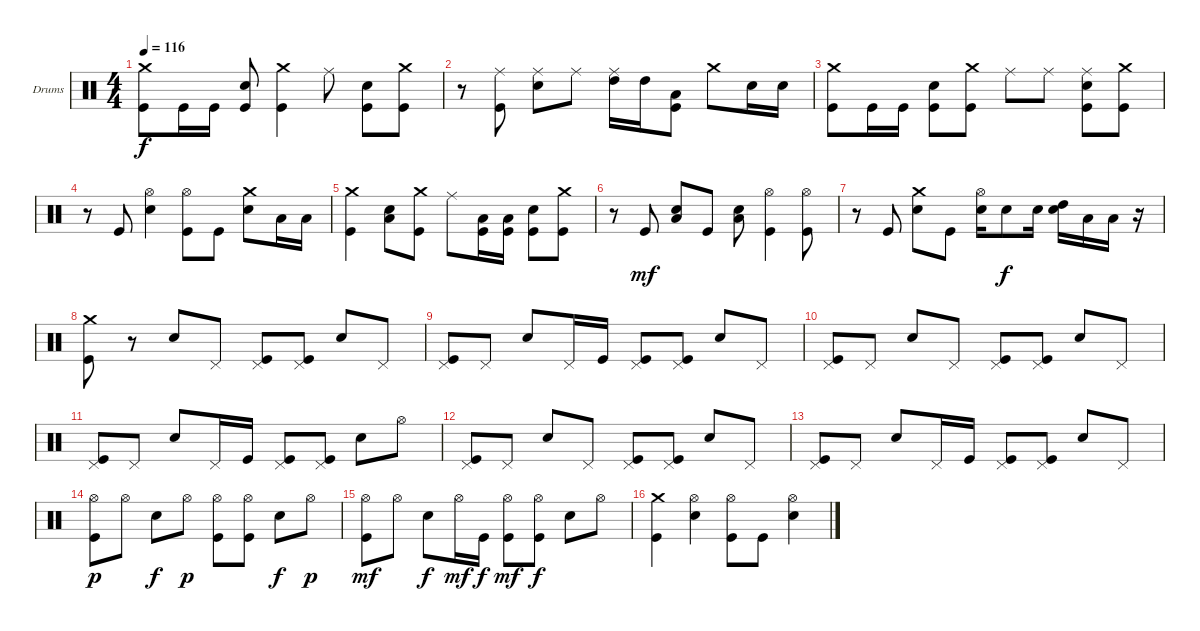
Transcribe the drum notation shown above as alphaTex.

\defaultSystemsLayout 4
\bracketExtendMode nobrackets
\firstSystemTrackNameOrientation horizontal
\otherSystemsTrackNameOrientation horizontal
\track ("Dave Abbruzzese" "Drums") {solo instrument percussion}
\staff {score}
\articulation defaults
\ts (4 4)
\tempo 116
\clef neutral
\ks c
("Crash medium (hit)" "Kick (hit)").8{dy f} "Kick (hit)".16 "Kick (hit)".16 ("Snare (hit) 2" "Kick (hit)").8 ("Crash medium (hit)" "Kick (hit)").4 "Ride (middle)".8 ("Snare (hit) 2" "Kick (hit)").8 ("Crash medium (hit)" "Kick (hit)").8 |
r.8 ("Ride (middle)" "Kick (hit)").8 ("Ride (middle)" "Snare (hit) 2").8 "Ride (middle)".8 ("Ride (middle)" "High Tom (hit)").16 "High Tom (hit)".16 ("Low Tom (hit)" "Kick (hit)").8 "Crash medium (hit)".8 "Snare (hit) 2".16 "Snare (hit) 2".16 |
("Crash medium (hit)" "Kick (hit)").8 "Kick (hit)".16 "Kick (hit)".16 ("Snare (hit) 2" "Kick (hit)").8 ("Crash medium (hit)" "Kick (hit)").8 "Ride (middle)".8 "Ride (middle)".8 ("Ride (middle)" "Snare (hit) 2" "Kick (hit)").8 ("Crash medium (hit)" "Kick (hit)").8 |
r.8 "Kick (hit)".8 ("Hi-Hat (open)" "Snare (hit) 2").4 ("Hi-Hat (open)" "Kick (hit)").8 "Kick (hit)".8 ("Crash medium (hit)" "Snare (hit) 2").8 "Low Tom (hit)".16 "Low Tom (hit)".16 |
("Crash medium (hit)" "Kick (hit)").4 ("Low Tom (hit)" "Snare (hit) 2").8 ("Crash medium (hit)" "Kick (hit)").8 "Ride (middle)".8 ("Low Tom (hit)" "Kick (hit)").16 ("Low Tom (hit)" "Kick (hit)").16 ("Snare (hit) 2" "Kick (hit)").8 ("Crash medium (hit)" "Kick (hit)").8 |
r.8 "Kick (hit)".8{dy mf} ("Low Tom (hit)" "Snare (hit) 2").8 "Kick (hit)".8 ("Low Tom (hit)" "Snare (hit) 2").8 ("Hi-Hat (open)" "Kick (hit)").4 ("Hi-Hat (open)" "Kick (hit)").8 |
r.8 "Kick (hit)".8 ("Crash medium (hit)" "Snare (hit) 2").8 "Kick (hit)".8 ("Hi-Hat (open)" "Snare (hit) 2").16 "Snare (hit) 2".8{dy f} "Snare (hit) 2".16 ("Snare (hit) 2" "High Tom (hit)").16 "Low Tom (hit)".16 "Low Tom (hit)".16 r.16 |
("Crash medium (hit)" "Kick (hit)").8 r.8 "Snare (hit) 2".8 "Pedal Hi-Hat (hit)".8 ("Pedal Hi-Hat (hit)" "Kick (hit)").8 ("Pedal Hi-Hat (hit)" "Kick (hit)").8 "Snare (hit) 2".8 "Pedal Hi-Hat (hit)".8 |
("Pedal Hi-Hat (hit)" "Kick (hit)").8 "Pedal Hi-Hat (hit)".8 "Snare (hit) 2".8 "Pedal Hi-Hat (hit)".16 "Kick (hit)".16 ("Pedal Hi-Hat (hit)" "Kick (hit)").8 ("Pedal Hi-Hat (hit)" "Kick (hit)").8 "Snare (hit) 2".8 "Pedal Hi-Hat (hit)".8 |
("Pedal Hi-Hat (hit)" "Kick (hit)").8 "Pedal Hi-Hat (hit)".8 "Snare (hit) 2".8 "Pedal Hi-Hat (hit)".8 ("Pedal Hi-Hat (hit)" "Kick (hit)").8 ("Pedal Hi-Hat (hit)" "Kick (hit)").8 "Snare (hit) 2".8 "Pedal Hi-Hat (hit)".8 |
("Pedal Hi-Hat (hit)" "Kick (hit)").8 "Pedal Hi-Hat (hit)".8 "Snare (hit) 2".8 "Pedal Hi-Hat (hit)".16 "Kick (hit)".16 ("Pedal Hi-Hat (hit)" "Kick (hit)").8 ("Pedal Hi-Hat (hit)" "Kick (hit)").8 "Snare (hit) 2".8 "Hi-Hat (open)".8 |
("Pedal Hi-Hat (hit)" "Kick (hit)").8 "Pedal Hi-Hat (hit)".8 "Snare (hit) 2".8 "Pedal Hi-Hat (hit)".8 ("Pedal Hi-Hat (hit)" "Kick (hit)").8 ("Pedal Hi-Hat (hit)" "Kick (hit)").8 "Snare (hit) 2".8 "Pedal Hi-Hat (hit)".8 |
("Pedal Hi-Hat (hit)" "Kick (hit)").8 "Pedal Hi-Hat (hit)".8 "Snare (hit) 2".8 "Pedal Hi-Hat (hit)".16 "Kick (hit)".16 ("Pedal Hi-Hat (hit)" "Kick (hit)").8 ("Pedal Hi-Hat (hit)" "Kick (hit)").8 "Snare (hit) 2".8 "Pedal Hi-Hat (hit)".8 |
("Hi-Hat (open)" "Kick (hit)").8{dy p} "Hi-Hat (open)".8 "Snare (hit) 2".8{dy f} "Hi-Hat (open)".8{dy p} ("Hi-Hat (open)" "Kick (hit)").8 ("Hi-Hat (open)" "Kick (hit)").8 "Snare (hit) 2".8{dy f} "Hi-Hat (open)".8{dy p} |
("Hi-Hat (open)" "Kick (hit)").8{dy mf} "Hi-Hat (open)".8 "Snare (hit) 2".8{dy f} "Hi-Hat (open)".16{dy mf} "Kick (hit)".16{dy f} ("Hi-Hat (open)" "Kick (hit)").8{dy mf} ("Hi-Hat (open)" "Kick (hit)").8{dy f} "Snare (hit) 2".8 "Hi-Hat (open)".8 |
("Crash medium (hit)" "Kick (hit)").4 ("Hi-Hat (open)" "Snare (hit) 2").4 ("Hi-Hat (open)" "Kick (hit)").8 "Kick (hit)".8 ("Hi-Hat (open)" "Snare (hit) 2").4
